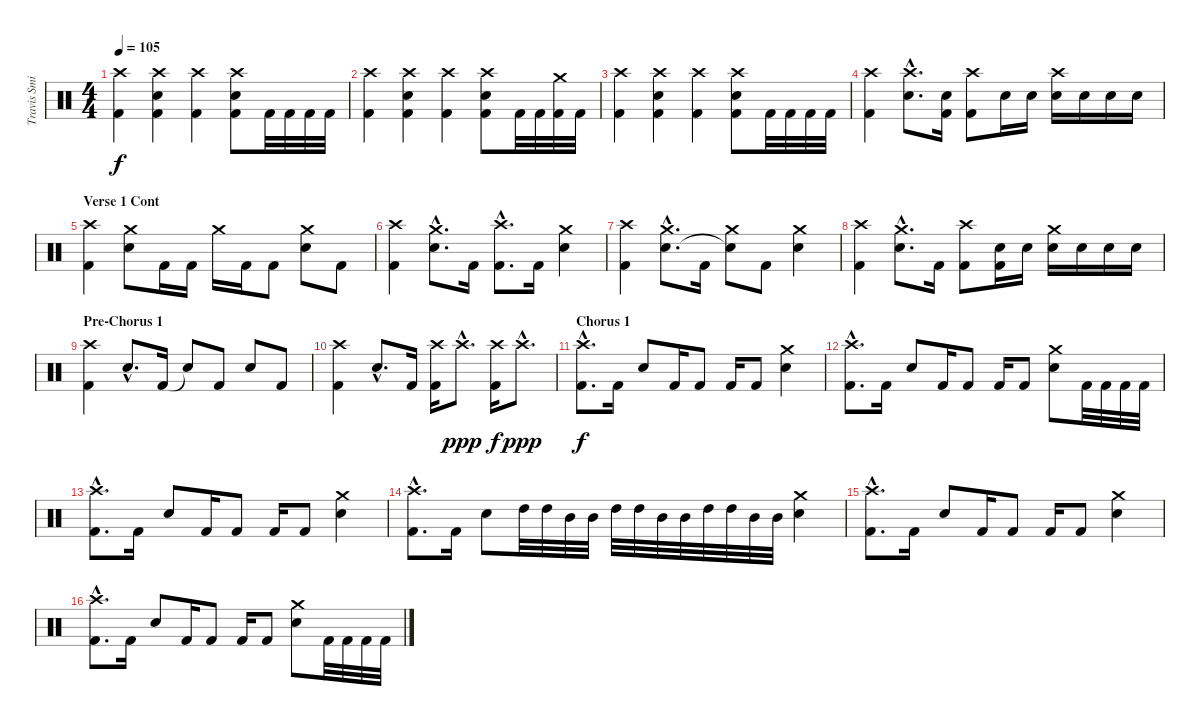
\track ("Travis Smith" "Travis Smi") {instrument percussion}
\staff {score}
\articulation defaults
\ts (4 4)
\tempo 105
\clef neutral
\ks c
("Crash high (hit)" "Kick (hit) 2").4{dy f} ("Crash high (hit)" "Snare (hit) 2" "Kick (hit) 2").4 ("Crash high (hit)" "Kick (hit) 2").4 ("Crash high (hit)" "Snare (hit) 2" "Kick (hit) 2").8 "Kick (hit) 2".32 "Kick (hit) 2".32 "Kick (hit) 2".32 "Kick (hit) 2".32 |
("Crash high (hit)" "Kick (hit) 2").4 ("Crash high (hit)" "Snare (hit) 2" "Kick (hit) 2").4 ("Crash high (hit)" "Kick (hit) 2").4 ("Crash high (hit)" "Snare (hit) 2" "Kick (hit) 2").8 "Kick (hit) 2".32 "Kick (hit) 2".32 ("Crash medium (hit)" "Kick (hit) 2").32 "Kick (hit) 2".32 |
("Crash high (hit)" "Kick (hit) 2").4 ("Crash high (hit)" "Snare (hit) 2" "Kick (hit) 2").4 ("Crash high (hit)" "Kick (hit) 2").4 ("Crash high (hit)" "Snare (hit) 2" "Kick (hit) 2").8 "Kick (hit) 2".32 "Kick (hit) 2".32 "Kick (hit) 2".32 "Kick (hit) 2".32 |
("Crash high (hit)" "Kick (hit) 2").4 ("Crash high (hit)"{hac} "Snare (hit) 2"{hac}).8{d} ("Snare (hit) 2" "Kick (hit) 2").16 ("Crash high (hit)" "Kick (hit) 2").8 "Snare (hit) 2".16 "Snare (hit) 2".16 ("Crash high (hit)" "Snare (hit) 2").16 "Snare (hit) 2".16 "Snare (hit) 2".16 "Snare (hit) 2".16 |
\section ("" "Verse 1 Cont")
("Crash high (hit)" "Kick (hit) 2").4 ("Crash medium (hit)" "Snare (hit) 2").8 "Kick (hit) 2".16 "Kick (hit) 2".16 "Crash medium (hit)".16 "Kick (hit) 2".16 "Kick (hit) 2".8 ("Crash medium (hit)" "Snare (hit) 2").8 "Kick (hit) 2".8 |
("Crash high (hit)" "Kick (hit) 2").4 ("Crash medium (hit)"{hac} "Snare (hit) 2"{hac}).8{d} "Kick (hit) 2".16 ("Crash high (hit)"{hac} "Kick (hit) 2"{hac}).8{d} "Kick (hit) 2".16 ("Crash medium (hit)" "Snare (hit) 2").4 |
("Crash high (hit)" "Kick (hit) 2").4 ("Crash medium (hit)"{hac} "Snare (hit) 2"{hac}).8{d} "Kick (hit) 2".16 ("Crash medium (hit)" "Snare (hit)"{t}).8 "Kick (hit) 2".8 ("Crash medium (hit)" "Snare (hit) 2").4 |
("Crash high (hit)" "Kick (hit) 2").4 ("Crash medium (hit)"{hac} "Snare (hit) 2"{hac}).8{d} "Kick (hit) 2".16 ("Crash high (hit)" "Kick (hit) 2").8 ("Snare (hit) 2" "Kick (hit) 2").16 "Snare (hit) 2".16 ("Crash medium (hit)" "Snare (hit) 2").16 "Snare (hit) 2".16 "Snare (hit) 2".16 "Snare (hit) 2".16 |
\section ("" "Pre-Chorus 1")
("Crash high (hit)" "Kick (hit) 2").4 "Snare (hit) 2"{hac}.8{d} "Kick (hit) 2".16 "Snare (hit)"{t}.8 "Kick (hit) 2".8 "Snare (hit) 2".8 "Kick (hit) 2".8 |
("Crash high (hit)" "Kick (hit) 2").4 "Snare (hit) 2"{hac}.8{d} "Kick (hit) 2".16 ("Crash high (hit)" "Kick (hit) 2").16 "Crash high (hit)"{hac}.8{d dy ppp} ("Crash high (hit)" "Kick (hit) 2").16{dy f} "Crash high (hit)"{hac}.8{d dy ppp} |
\section ("" "Chorus 1")
("Crash high (hit)"{hac} "Kick (hit) 2"{hac}).8{d dy f} "Kick (hit) 2".16 "Snare (hit) 2".8 "Kick (hit) 2".16 "Kick (hit) 2".8 "Kick (hit) 2".16 "Kick (hit) 2".8 ("Crash medium (hit)" "Snare (hit) 2").4 |
("Crash high (hit)"{hac} "Kick (hit) 2"{hac}).8{d} "Kick (hit) 2".16 "Snare (hit) 2".8 "Kick (hit) 2".16 "Kick (hit) 2".8 "Kick (hit) 2".16 "Kick (hit) 2".8 ("Crash medium (hit)" "Snare (hit) 2").8 "Kick (hit) 2".32 "Kick (hit) 2".32 "Kick (hit) 2".32 "Kick (hit) 2".32 |
("Crash high (hit)"{hac} "Kick (hit) 2"{hac}).8{d} "Kick (hit) 2".16 "Snare (hit) 2".8 "Kick (hit) 2".16 "Kick (hit) 2".8 "Kick (hit) 2".16 "Kick (hit) 2".8 ("Crash medium (hit)" "Snare (hit) 2").4 |
("Crash high (hit)"{hac} "Kick (hit) 2"{hac}).8{d} "Kick (hit) 2".16 "Snare (hit) 2".8 "High Tom (hit)".32 "High Tom (hit)".32 "Mid Tom (hit)".32 "Mid Tom (hit)".32 "High Tom (hit)".32 "High Tom (hit)".32 "Mid Tom (hit)".32 "Mid Tom (hit)".32 "High Tom (hit)".32 "High Tom (hit)".32 "Mid Tom (hit)".32 "Mid Tom (hit)".32 ("Crash medium (hit)" "Snare (hit) 2").4 |
("Crash high (hit)"{hac} "Kick (hit) 2"{hac}).8{d} "Kick (hit) 2".16 "Snare (hit) 2".8 "Kick (hit) 2".16 "Kick (hit) 2".8 "Kick (hit) 2".16 "Kick (hit) 2".8 ("Crash medium (hit)" "Snare (hit) 2").4 |
("Crash high (hit)"{hac} "Kick (hit) 2"{hac}).8{d} "Kick (hit) 2".16 "Snare (hit) 2".8 "Kick (hit) 2".16 "Kick (hit) 2".8 "Kick (hit) 2".16 "Kick (hit) 2".8 ("Crash medium (hit)" "Snare (hit) 2").8 "Kick (hit) 2".32 "Kick (hit) 2".32 "Kick (hit) 2".32 "Kick (hit) 2".32
